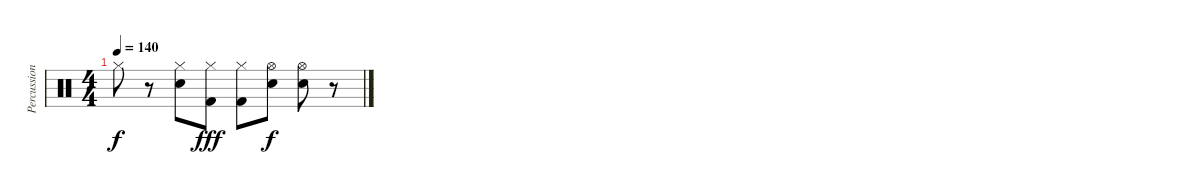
\track ("Percussion" "Percussion") {instrument percussion}
\staff {score}
\articulation defaults
\ts (4 4)
\tempo 140
\clef neutral
\ks c "Hi-Hat (closed)".8{dy f}
r.8 ("Hi-Hat (closed)" "Electric Snare (hit)").8 ("Hi-Hat (closed)" "Kick (hit) 2").8{dy fff} ("Hi-Hat (closed)" "Kick (hit) 2").8 ("Hi-Hat (open)" "Electric Snare (hit)").8{dy f} ("Hi-Hat (open)" "Electric Snare (hit)").8 r.8
